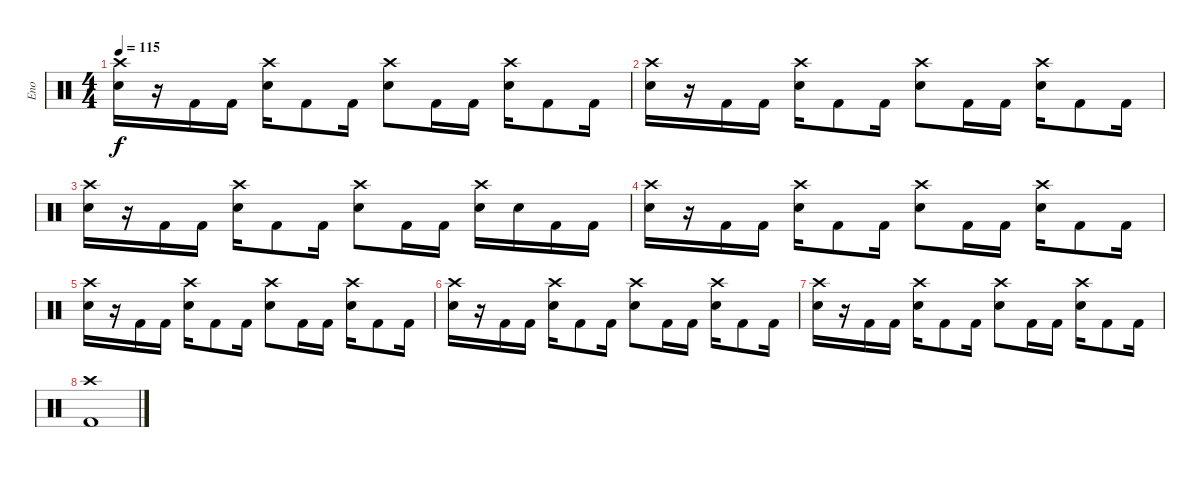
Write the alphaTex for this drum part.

\track ("Eno" "Eno") {instrument percussion}
\staff {score}
\articulation defaults
\ts (4 4)
\tempo 115
\clef neutral
\ks c
("Electric Snare (hit)" "Crash high (hit)").16{dy f} r.16 "Kick (hit) 2".16 "Kick (hit) 2".16 ("Electric Snare (hit)" "Crash high (hit)").16 "Kick (hit) 2".8 "Kick (hit) 2".16 ("Electric Snare (hit)" "Crash high (hit)").8 "Kick (hit) 2".16 "Kick (hit) 2".16 ("Electric Snare (hit)" "Crash high (hit)").16 "Kick (hit) 2".8 "Kick (hit) 2".16 |
("Electric Snare (hit)" "Crash high (hit)").16 r.16 "Kick (hit) 2".16 "Kick (hit) 2".16 ("Electric Snare (hit)" "Crash high (hit)").16 "Kick (hit) 2".8 "Kick (hit) 2".16 ("Electric Snare (hit)" "Crash high (hit)").8 "Kick (hit) 2".16 "Kick (hit) 2".16 ("Electric Snare (hit)" "Crash high (hit)").16 "Kick (hit) 2".8 "Kick (hit) 2".16 |
("Electric Snare (hit)" "Crash high (hit)").16 r.16 "Kick (hit) 2".16 "Kick (hit) 2".16 ("Electric Snare (hit)" "Crash high (hit)").16 "Kick (hit) 2".8 "Kick (hit) 2".16 ("Electric Snare (hit)" "Crash high (hit)").8 "Kick (hit) 2".16 "Kick (hit) 2".16 ("Electric Snare (hit)" "Crash high (hit)").16 "Electric Snare (hit)".16 "Kick (hit) 2".16 "Kick (hit) 2".16 |
("Electric Snare (hit)" "Crash high (hit)").16 r.16 "Kick (hit) 2".16 "Kick (hit) 2".16 ("Electric Snare (hit)" "Crash high (hit)").16 "Kick (hit) 2".8 "Kick (hit) 2".16 ("Electric Snare (hit)" "Crash high (hit)").8 "Kick (hit) 2".16 "Kick (hit) 2".16 ("Electric Snare (hit)" "Crash high (hit)").16 "Kick (hit) 2".8 "Kick (hit) 2".16 |
("Electric Snare (hit)" "Crash high (hit)").16 r.16 "Kick (hit) 2".16 "Kick (hit) 2".16 ("Electric Snare (hit)" "Crash high (hit)").16 "Kick (hit) 2".8 "Kick (hit) 2".16 ("Electric Snare (hit)" "Crash high (hit)").8 "Kick (hit) 2".16 "Kick (hit) 2".16 ("Electric Snare (hit)" "Crash high (hit)").16 "Kick (hit) 2".8 "Kick (hit) 2".16 |
("Electric Snare (hit)" "Crash high (hit)").16 r.16 "Kick (hit) 2".16 "Kick (hit) 2".16 ("Electric Snare (hit)" "Crash high (hit)").16 "Kick (hit) 2".8 "Kick (hit) 2".16 ("Electric Snare (hit)" "Crash high (hit)").8 "Kick (hit) 2".16 "Kick (hit) 2".16 ("Electric Snare (hit)" "Crash high (hit)").16 "Kick (hit) 2".8 "Kick (hit) 2".16 |
("Electric Snare (hit)" "Crash high (hit)").16 r.16 "Kick (hit) 2".16 "Kick (hit) 2".16 ("Electric Snare (hit)" "Crash high (hit)").16 "Kick (hit) 2".8 "Kick (hit) 2".16 ("Electric Snare (hit)" "Crash high (hit)").8 "Kick (hit) 2".16 "Kick (hit) 2".16 ("Electric Snare (hit)" "Crash high (hit)").16 "Kick (hit) 2".8 "Kick (hit) 2".16 |
("Kick (hit) 2" "Crash high (hit)").1
